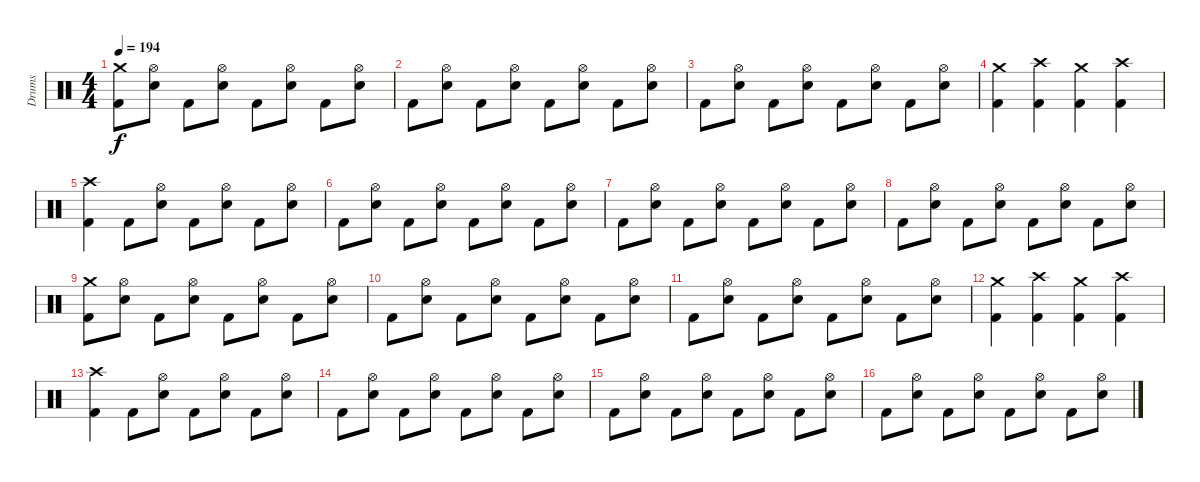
\track ("Drums" "Drums") {instrument percussion}
\staff {score}
\articulation defaults
\ts (4 4)
\tempo 194
\clef neutral
\ks c
("Crash medium (hit)" "Kick (hit) 2").8{dy f} ("Hi-Hat (open)" "Electric Snare (hit)").8 "Kick (hit) 2".8 ("Hi-Hat (open)" "Electric Snare (hit)").8 "Kick (hit) 2".8 ("Hi-Hat (open)" "Electric Snare (hit)").8 "Kick (hit) 2".8 ("Hi-Hat (open)" "Electric Snare (hit)").8 |
"Kick (hit) 2".8 ("Hi-Hat (open)" "Electric Snare (hit)").8 "Kick (hit) 2".8 ("Hi-Hat (open)" "Electric Snare (hit)").8 "Kick (hit) 2".8 ("Hi-Hat (open)" "Electric Snare (hit)").8 "Kick (hit) 2".8 ("Hi-Hat (open)" "Electric Snare (hit)").8 |
"Kick (hit) 2".8 ("Hi-Hat (open)" "Electric Snare (hit)").8 "Kick (hit) 2".8 ("Hi-Hat (open)" "Electric Snare (hit)").8 "Kick (hit) 2".8 ("Hi-Hat (open)" "Electric Snare (hit)").8 "Kick (hit) 2".8 ("Hi-Hat (open)" "Electric Snare (hit)").8 |
("Crash medium (hit)" "Kick (hit) 2").4 ("Crash high (hit)" "Kick (hit) 2").4 ("Crash medium (hit)" "Kick (hit) 2").4 ("Crash high (hit)" "Kick (hit) 2").4 |
("Crash high (hit)" "Kick (hit) 2").4 "Kick (hit) 2".8 ("Hi-Hat (open)" "Electric Snare (hit)").8 "Kick (hit) 2".8 ("Hi-Hat (open)" "Electric Snare (hit)").8 "Kick (hit) 2".8 ("Hi-Hat (open)" "Electric Snare (hit)").8 |
"Kick (hit) 2".8 ("Hi-Hat (open)" "Electric Snare (hit)").8 "Kick (hit) 2".8 ("Hi-Hat (open)" "Electric Snare (hit)").8 "Kick (hit) 2".8 ("Hi-Hat (open)" "Electric Snare (hit)").8 "Kick (hit) 2".8 ("Hi-Hat (open)" "Electric Snare (hit)").8 |
"Kick (hit) 2".8 ("Hi-Hat (open)" "Electric Snare (hit)").8 "Kick (hit) 2".8 ("Hi-Hat (open)" "Electric Snare (hit)").8 "Kick (hit) 2".8 ("Hi-Hat (open)" "Electric Snare (hit)").8 "Kick (hit) 2".8 ("Hi-Hat (open)" "Electric Snare (hit)").8 |
"Kick (hit) 2".8 ("Hi-Hat (open)" "Electric Snare (hit)").8 "Kick (hit) 2".8 ("Hi-Hat (open)" "Electric Snare (hit)").8 "Kick (hit) 2".8 ("Hi-Hat (open)" "Electric Snare (hit)").8 "Kick (hit) 2".8 ("Hi-Hat (open)" "Electric Snare (hit)").8 |
("Crash medium (hit)" "Kick (hit) 2").8 ("Hi-Hat (open)" "Electric Snare (hit)").8 "Kick (hit) 2".8 ("Hi-Hat (open)" "Electric Snare (hit)").8 "Kick (hit) 2".8 ("Hi-Hat (open)" "Electric Snare (hit)").8 "Kick (hit) 2".8 ("Hi-Hat (open)" "Electric Snare (hit)").8 |
"Kick (hit) 2".8 ("Hi-Hat (open)" "Electric Snare (hit)").8 "Kick (hit) 2".8 ("Hi-Hat (open)" "Electric Snare (hit)").8 "Kick (hit) 2".8 ("Hi-Hat (open)" "Electric Snare (hit)").8 "Kick (hit) 2".8 ("Hi-Hat (open)" "Electric Snare (hit)").8 |
"Kick (hit) 2".8 ("Hi-Hat (open)" "Electric Snare (hit)").8 "Kick (hit) 2".8 ("Hi-Hat (open)" "Electric Snare (hit)").8 "Kick (hit) 2".8 ("Hi-Hat (open)" "Electric Snare (hit)").8 "Kick (hit) 2".8 ("Hi-Hat (open)" "Electric Snare (hit)").8 |
("Crash medium (hit)" "Kick (hit) 2").4 ("Crash high (hit)" "Kick (hit) 2").4 ("Crash medium (hit)" "Kick (hit) 2").4 ("Crash high (hit)" "Kick (hit) 2").4 |
("Crash high (hit)" "Kick (hit) 2").4 "Kick (hit) 2".8 ("Hi-Hat (open)" "Electric Snare (hit)").8 "Kick (hit) 2".8 ("Hi-Hat (open)" "Electric Snare (hit)").8 "Kick (hit) 2".8 ("Hi-Hat (open)" "Electric Snare (hit)").8 |
"Kick (hit) 2".8 ("Hi-Hat (open)" "Electric Snare (hit)").8 "Kick (hit) 2".8 ("Hi-Hat (open)" "Electric Snare (hit)").8 "Kick (hit) 2".8 ("Hi-Hat (open)" "Electric Snare (hit)").8 "Kick (hit) 2".8 ("Hi-Hat (open)" "Electric Snare (hit)").8 |
"Kick (hit) 2".8 ("Hi-Hat (open)" "Electric Snare (hit)").8 "Kick (hit) 2".8 ("Hi-Hat (open)" "Electric Snare (hit)").8 "Kick (hit) 2".8 ("Hi-Hat (open)" "Electric Snare (hit)").8 "Kick (hit) 2".8 ("Hi-Hat (open)" "Electric Snare (hit)").8 |
"Kick (hit) 2".8 ("Hi-Hat (open)" "Electric Snare (hit)").8 "Kick (hit) 2".8 ("Hi-Hat (open)" "Electric Snare (hit)").8 "Kick (hit) 2".8 ("Hi-Hat (open)" "Electric Snare (hit)").8 "Kick (hit) 2".8 ("Hi-Hat (open)" "Electric Snare (hit)").8
